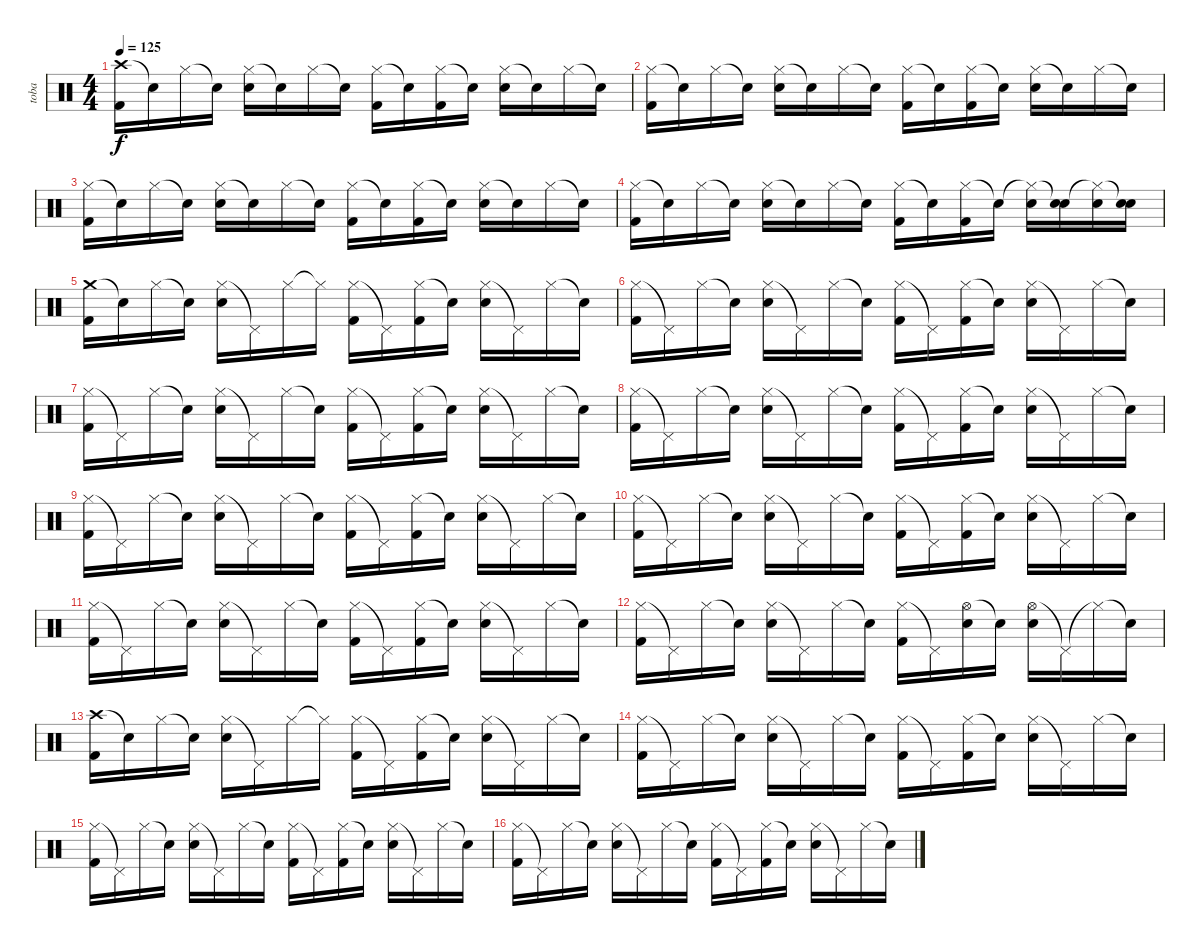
\track ("toba" "toba") {instrument percussion}
\staff {score}
\articulation defaults
\ts (4 4)
\tempo 125
\clef neutral
\ks c
("Crash high (hit)" "Kick (hit) 2").16{dy f} "Snare (hit)"{t}.16 "Hi-Hat (closed)".16 "Snare (hit)"{t}.16 ("Hi-Hat (closed)" "Electric Snare (hit)").16 "Snare (hit)"{t}.16 "Hi-Hat (closed)".16 "Snare (hit)"{t}.16 ("Hi-Hat (closed)" "Kick (hit) 2").16 "Snare (hit)"{t}.16 ("Hi-Hat (closed)" "Kick (hit) 2").16 "Snare (hit)"{t}.16 ("Hi-Hat (closed)" "Electric Snare (hit)").16 "Snare (hit)"{t}.16 "Hi-Hat (closed)".16 "Snare (hit)"{t}.16 |
("Hi-Hat (closed)" "Kick (hit) 2").16 "Snare (hit)"{t}.16 "Hi-Hat (closed)".16 "Snare (hit)"{t}.16 ("Hi-Hat (closed)" "Electric Snare (hit)").16 "Snare (hit)"{t}.16 "Hi-Hat (closed)".16 "Snare (hit)"{t}.16 ("Hi-Hat (closed)" "Kick (hit) 2").16 "Snare (hit)"{t}.16 ("Hi-Hat (closed)" "Kick (hit) 2").16 "Snare (hit)"{t}.16 ("Hi-Hat (closed)" "Electric Snare (hit)").16 "Snare (hit)"{t}.16 "Hi-Hat (closed)".16 "Snare (hit)"{t}.16 |
("Hi-Hat (closed)" "Kick (hit) 2").16 "Snare (hit)"{t}.16 "Hi-Hat (closed)".16 "Snare (hit)"{t}.16 ("Hi-Hat (closed)" "Electric Snare (hit)").16 "Snare (hit)"{t}.16 "Hi-Hat (closed)".16 "Snare (hit)"{t}.16 ("Hi-Hat (closed)" "Kick (hit) 2").16 "Snare (hit)"{t}.16 ("Hi-Hat (closed)" "Kick (hit) 2").16 "Snare (hit)"{t}.16 ("Hi-Hat (closed)" "Electric Snare (hit)").16 "Snare (hit)"{t}.16 "Hi-Hat (closed)".16 "Snare (hit)"{t}.16 |
("Hi-Hat (closed)" "Kick (hit) 2").16 "Snare (hit)"{t}.16 "Hi-Hat (closed)".16 "Snare (hit)"{t}.16 ("Hi-Hat (closed)" "Electric Snare (hit)").16 "Snare (hit)"{t}.16 "Hi-Hat (closed)".16 "Snare (hit)"{t}.16 ("Hi-Hat (closed)" "Kick (hit) 2").16 "Snare (hit)"{t}.16 ("Hi-Hat (closed)" "Kick (hit) 2").16 "Snare (hit)"{t}.16 ("Hi-Hat (closed)"{t} "Electric Snare (hit)").16 ("Snare (hit)"{t} "Electric Snare (hit)").16 ("Hi-Hat (closed)"{t} "Electric Snare (hit)").16 ("Snare (hit)"{t} "Electric Snare (hit)").16 |
("Crash medium (hit)" "Kick (hit) 2").16 "Snare (hit)"{t}.16 "Hi-Hat (closed)".16 "Snare (hit)"{t}.16 ("Hi-Hat (closed)" "Electric Snare (hit)").16 "Pedal Hi-Hat (hit)"{t}.16 "Hi-Hat (closed)".16 "Hi-Hat (closed)"{t}.16 ("Hi-Hat (closed)" "Kick (hit) 2").16 "Pedal Hi-Hat (hit)"{t}.16 ("Hi-Hat (closed)" "Kick (hit) 2").16 "Snare (hit)"{t}.16 ("Hi-Hat (closed)" "Electric Snare (hit)").16 "Pedal Hi-Hat (hit)"{t}.16 "Hi-Hat (closed)".16 "Snare (hit)"{t}.16 |
("Hi-Hat (closed)" "Kick (hit) 2").16 "Pedal Hi-Hat (hit)"{t}.16 "Hi-Hat (closed)".16 "Snare (hit)"{t}.16 ("Hi-Hat (closed)" "Electric Snare (hit)").16 "Pedal Hi-Hat (hit)"{t}.16 "Hi-Hat (closed)".16 "Snare (hit)"{t}.16 ("Hi-Hat (closed)" "Kick (hit) 2").16 "Pedal Hi-Hat (hit)"{t}.16 ("Hi-Hat (closed)" "Kick (hit) 2").16 "Snare (hit)"{t}.16 ("Hi-Hat (closed)" "Electric Snare (hit)").16 "Pedal Hi-Hat (hit)"{t}.16 "Hi-Hat (closed)".16 "Snare (hit)"{t}.16 |
("Hi-Hat (closed)" "Kick (hit) 2").16 "Pedal Hi-Hat (hit)"{t}.16 "Hi-Hat (closed)".16 "Snare (hit)"{t}.16 ("Hi-Hat (closed)" "Electric Snare (hit)").16 "Pedal Hi-Hat (hit)"{t}.16 "Hi-Hat (closed)".16 "Snare (hit)"{t}.16 ("Hi-Hat (closed)" "Kick (hit) 2").16 "Pedal Hi-Hat (hit)"{t}.16 ("Hi-Hat (closed)" "Kick (hit) 2").16 "Snare (hit)"{t}.16 ("Hi-Hat (closed)" "Electric Snare (hit)").16 "Pedal Hi-Hat (hit)"{t}.16 "Hi-Hat (closed)".16 "Snare (hit)"{t}.16 |
("Hi-Hat (closed)" "Kick (hit) 2").16 "Pedal Hi-Hat (hit)"{t}.16 "Hi-Hat (closed)".16 "Snare (hit)"{t}.16 ("Hi-Hat (closed)" "Electric Snare (hit)").16 "Pedal Hi-Hat (hit)"{t}.16 "Hi-Hat (closed)".16 "Snare (hit)"{t}.16 ("Hi-Hat (closed)" "Kick (hit) 2").16 "Pedal Hi-Hat (hit)"{t}.16 ("Hi-Hat (closed)" "Kick (hit) 2").16 "Snare (hit)"{t}.16 ("Hi-Hat (closed)" "Electric Snare (hit)").16 "Pedal Hi-Hat (hit)"{t}.16 "Hi-Hat (closed)".16 "Snare (hit)"{t}.16 |
("Hi-Hat (closed)" "Kick (hit) 2").16 "Pedal Hi-Hat (hit)"{t}.16 "Hi-Hat (closed)".16 "Snare (hit)"{t}.16 ("Hi-Hat (closed)" "Electric Snare (hit)").16 "Pedal Hi-Hat (hit)"{t}.16 "Hi-Hat (closed)".16 "Snare (hit)"{t}.16 ("Hi-Hat (closed)" "Kick (hit) 2").16 "Pedal Hi-Hat (hit)"{t}.16 ("Hi-Hat (closed)" "Kick (hit) 2").16 "Snare (hit)"{t}.16 ("Hi-Hat (closed)" "Electric Snare (hit)").16 "Pedal Hi-Hat (hit)"{t}.16 "Hi-Hat (closed)".16 "Snare (hit)"{t}.16 |
("Hi-Hat (closed)" "Kick (hit) 2").16 "Pedal Hi-Hat (hit)"{t}.16 "Hi-Hat (closed)".16 "Snare (hit)"{t}.16 ("Hi-Hat (closed)" "Electric Snare (hit)").16 "Pedal Hi-Hat (hit)"{t}.16 "Hi-Hat (closed)".16 "Snare (hit)"{t}.16 ("Hi-Hat (closed)" "Kick (hit) 2").16 "Pedal Hi-Hat (hit)"{t}.16 ("Hi-Hat (closed)" "Kick (hit) 2").16 "Snare (hit)"{t}.16 ("Hi-Hat (closed)" "Electric Snare (hit)").16 "Pedal Hi-Hat (hit)"{t}.16 "Hi-Hat (closed)".16 "Snare (hit)"{t}.16 |
("Hi-Hat (closed)" "Kick (hit) 2").16 "Pedal Hi-Hat (hit)"{t}.16 "Hi-Hat (closed)".16 "Snare (hit)"{t}.16 ("Hi-Hat (closed)" "Electric Snare (hit)").16 "Pedal Hi-Hat (hit)"{t}.16 "Hi-Hat (closed)".16 "Snare (hit)"{t}.16 ("Hi-Hat (closed)" "Kick (hit) 2").16 "Pedal Hi-Hat (hit)"{t}.16 ("Hi-Hat (closed)" "Kick (hit) 2").16 "Snare (hit)"{t}.16 ("Hi-Hat (closed)" "Electric Snare (hit)").16 "Pedal Hi-Hat (hit)"{t}.16 "Hi-Hat (closed)".16 "Snare (hit)"{t}.16 |
("Hi-Hat (closed)" "Kick (hit) 2").16 "Pedal Hi-Hat (hit)"{t}.16 "Hi-Hat (closed)".16 "Snare (hit)"{t}.16 ("Hi-Hat (closed)" "Electric Snare (hit)").16 "Pedal Hi-Hat (hit)"{t}.16 "Hi-Hat (closed)".16 "Snare (hit)"{t}.16 ("Hi-Hat (closed)" "Kick (hit) 2").16 "Pedal Hi-Hat (hit)"{t}.16 ("Hi-Hat (open)" "Electric Snare (hit)").16 "Snare (hit)"{t}.16 ("Hi-Hat (open)" "Electric Snare (hit)").16 "Pedal Hi-Hat (hit)"{t}.16 "Hi-Hat (closed)"{t}.16 "Snare (hit)"{t}.16 |
("Crash high (hit)" "Kick (hit) 2").16 "Snare (hit)"{t}.16 "Hi-Hat (closed)".16 "Snare (hit)"{t}.16 ("Hi-Hat (closed)" "Electric Snare (hit)").16 "Pedal Hi-Hat (hit)"{t}.16 "Hi-Hat (closed)".16 "Hi-Hat (closed)"{t}.16 ("Hi-Hat (closed)" "Kick (hit) 2").16 "Pedal Hi-Hat (hit)"{t}.16 ("Hi-Hat (closed)" "Kick (hit) 2").16 "Snare (hit)"{t}.16 ("Hi-Hat (closed)" "Electric Snare (hit)").16 "Pedal Hi-Hat (hit)"{t}.16 "Hi-Hat (closed)".16 "Snare (hit)"{t}.16 |
("Hi-Hat (closed)" "Kick (hit) 2").16 "Pedal Hi-Hat (hit)"{t}.16 "Hi-Hat (closed)".16 "Snare (hit)"{t}.16 ("Hi-Hat (closed)" "Electric Snare (hit)").16 "Pedal Hi-Hat (hit)"{t}.16 "Hi-Hat (closed)".16 "Snare (hit)"{t}.16 ("Hi-Hat (closed)" "Kick (hit) 2").16 "Pedal Hi-Hat (hit)"{t}.16 ("Hi-Hat (closed)" "Kick (hit) 2").16 "Snare (hit)"{t}.16 ("Hi-Hat (closed)" "Electric Snare (hit)").16 "Pedal Hi-Hat (hit)"{t}.16 "Hi-Hat (closed)".16 "Snare (hit)"{t}.16 |
("Hi-Hat (closed)" "Kick (hit) 2").16 "Pedal Hi-Hat (hit)"{t}.16 "Hi-Hat (closed)".16 "Snare (hit)"{t}.16 ("Hi-Hat (closed)" "Electric Snare (hit)").16 "Pedal Hi-Hat (hit)"{t}.16 "Hi-Hat (closed)".16 "Snare (hit)"{t}.16 ("Hi-Hat (closed)" "Kick (hit) 2").16 "Pedal Hi-Hat (hit)"{t}.16 ("Hi-Hat (closed)" "Kick (hit) 2").16 "Snare (hit)"{t}.16 ("Hi-Hat (closed)" "Electric Snare (hit)").16 "Pedal Hi-Hat (hit)"{t}.16 "Hi-Hat (closed)".16 "Snare (hit)"{t}.16 |
("Hi-Hat (closed)" "Kick (hit) 2").16 "Pedal Hi-Hat (hit)"{t}.16 "Hi-Hat (closed)".16 "Snare (hit)"{t}.16 ("Hi-Hat (closed)" "Electric Snare (hit)").16 "Pedal Hi-Hat (hit)"{t}.16 "Hi-Hat (closed)".16 "Snare (hit)"{t}.16 ("Hi-Hat (closed)" "Kick (hit) 2").16 "Pedal Hi-Hat (hit)"{t}.16 ("Hi-Hat (closed)" "Kick (hit) 2").16 "Snare (hit)"{t}.16 ("Hi-Hat (closed)" "Electric Snare (hit)").16 "Pedal Hi-Hat (hit)"{t}.16 "Hi-Hat (closed)".16 "Snare (hit)"{t}.16
